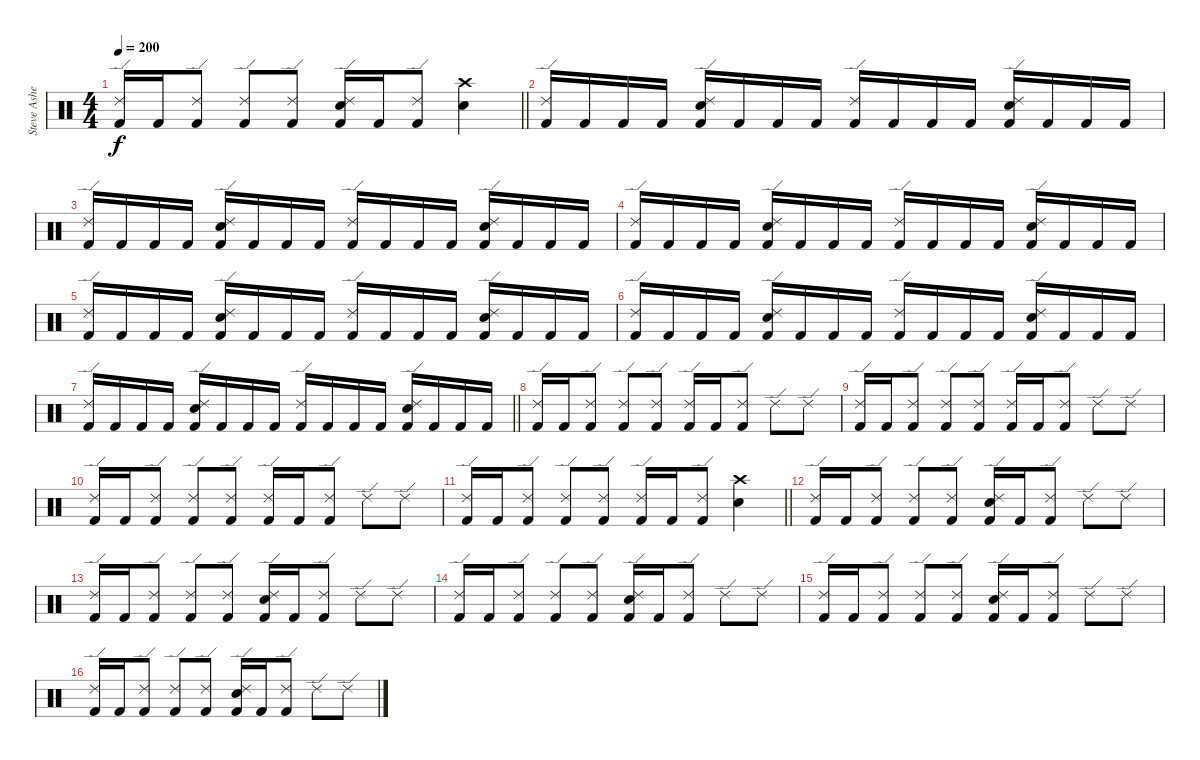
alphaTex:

\track ("Steve Asheim" "Steve Ashe") {instrument percussion}
\staff {score}
\articulation defaults
\ts (4 4)
\tempo 200
\clef neutral
\barLineRight lightlight
\ks c
("Ride (edge) 2" "Kick (hit) 2").16{dy f} "Kick (hit) 2".16 ("Ride (edge) 2" "Kick (hit) 2").8 ("Ride (edge) 2" "Kick (hit) 2").8 ("Ride (edge) 2" "Kick (hit) 2").8 ("Ride (edge) 2" "Electric Snare (hit)" "Kick (hit) 2").16 "Kick (hit) 2".16 ("Ride (edge) 2" "Kick (hit) 2").8 ("Crash high (hit)" "Electric Snare (hit)").4 |
("Ride (edge) 2" "Kick (hit) 2").16 "Kick (hit) 2".16 "Kick (hit) 2".16 "Kick (hit) 2".16 ("Ride (edge) 2" "Electric Snare (hit)" "Kick (hit) 2").16 "Kick (hit) 2".16 "Kick (hit) 2".16 "Kick (hit) 2".16 ("Ride (edge) 2" "Kick (hit) 2").16 "Kick (hit) 2".16 "Kick (hit) 2".16 "Kick (hit) 2".16 ("Ride (edge) 2" "Electric Snare (hit)" "Kick (hit) 2").16 "Kick (hit) 2".16 "Kick (hit) 2".16 "Kick (hit) 2".16 |
("Ride (edge) 2" "Kick (hit) 2").16 "Kick (hit) 2".16 "Kick (hit) 2".16 "Kick (hit) 2".16 ("Ride (edge) 2" "Electric Snare (hit)" "Kick (hit) 2").16 "Kick (hit) 2".16 "Kick (hit) 2".16 "Kick (hit) 2".16 ("Ride (edge) 2" "Kick (hit) 2").16 "Kick (hit) 2".16 "Kick (hit) 2".16 "Kick (hit) 2".16 ("Ride (edge) 2" "Electric Snare (hit)" "Kick (hit) 2").16 "Kick (hit) 2".16 "Kick (hit) 2".16 "Kick (hit) 2".16 |
("Ride (edge) 2" "Kick (hit) 2").16 "Kick (hit) 2".16 "Kick (hit) 2".16 "Kick (hit) 2".16 ("Ride (edge) 2" "Electric Snare (hit)" "Kick (hit) 2").16 "Kick (hit) 2".16 "Kick (hit) 2".16 "Kick (hit) 2".16 ("Ride (edge) 2" "Kick (hit) 2").16 "Kick (hit) 2".16 "Kick (hit) 2".16 "Kick (hit) 2".16 ("Ride (edge) 2" "Electric Snare (hit)" "Kick (hit) 2").16 "Kick (hit) 2".16 "Kick (hit) 2".16 "Kick (hit) 2".16 |
("Ride (edge) 2" "Kick (hit) 2").16 "Kick (hit) 2".16 "Kick (hit) 2".16 "Kick (hit) 2".16 ("Ride (edge) 2" "Electric Snare (hit)" "Kick (hit) 2").16 "Kick (hit) 2".16 "Kick (hit) 2".16 "Kick (hit) 2".16 ("Ride (edge) 2" "Kick (hit) 2").16 "Kick (hit) 2".16 "Kick (hit) 2".16 "Kick (hit) 2".16 ("Ride (edge) 2" "Electric Snare (hit)" "Kick (hit) 2").16 "Kick (hit) 2".16 "Kick (hit) 2".16 "Kick (hit) 2".16 |
("Ride (edge) 2" "Kick (hit) 2").16 "Kick (hit) 2".16 "Kick (hit) 2".16 "Kick (hit) 2".16 ("Ride (edge) 2" "Electric Snare (hit)" "Kick (hit) 2").16 "Kick (hit) 2".16 "Kick (hit) 2".16 "Kick (hit) 2".16 ("Ride (edge) 2" "Kick (hit) 2").16 "Kick (hit) 2".16 "Kick (hit) 2".16 "Kick (hit) 2".16 ("Ride (edge) 2" "Electric Snare (hit)" "Kick (hit) 2").16 "Kick (hit) 2".16 "Kick (hit) 2".16 "Kick (hit) 2".16 |
\barLineRight lightlight
("Ride (edge) 2" "Kick (hit) 2").16 "Kick (hit) 2".16 "Kick (hit) 2".16 "Kick (hit) 2".16 ("Ride (edge) 2" "Electric Snare (hit)" "Kick (hit) 2").16 "Kick (hit) 2".16 "Kick (hit) 2".16 "Kick (hit) 2".16 ("Ride (edge) 2" "Kick (hit) 2").16 "Kick (hit) 2".16 "Kick (hit) 2".16 "Kick (hit) 2".16 ("Ride (edge) 2" "Electric Snare (hit)" "Kick (hit) 2").16 "Kick (hit) 2".16 "Kick (hit) 2".16 "Kick (hit) 2".16 |
("Ride (edge) 2" "Kick (hit) 2").16 "Kick (hit) 2".16 ("Ride (edge) 2" "Kick (hit) 2").8 ("Ride (edge) 2" "Kick (hit) 2").8 ("Ride (edge) 2" "Kick (hit) 2").8 ("Ride (edge) 2" "Kick (hit) 2").16 "Kick (hit) 2".16 ("Ride (edge) 2" "Kick (hit) 2").8 "Ride (edge) 2".8 "Ride (edge) 2".8 |
("Ride (edge) 2" "Kick (hit) 2").16 "Kick (hit) 2".16 ("Ride (edge) 2" "Kick (hit) 2").8 ("Ride (edge) 2" "Kick (hit) 2").8 ("Ride (edge) 2" "Kick (hit) 2").8 ("Ride (edge) 2" "Kick (hit) 2").16 "Kick (hit) 2".16 ("Ride (edge) 2" "Kick (hit) 2").8 "Ride (edge) 2".8 "Ride (edge) 2".8 |
("Ride (edge) 2" "Kick (hit) 2").16 "Kick (hit) 2".16 ("Ride (edge) 2" "Kick (hit) 2").8 ("Ride (edge) 2" "Kick (hit) 2").8 ("Ride (edge) 2" "Kick (hit) 2").8 ("Ride (edge) 2" "Kick (hit) 2").16 "Kick (hit) 2".16 ("Ride (edge) 2" "Kick (hit) 2").8 "Ride (edge) 2".8 "Ride (edge) 2".8 |
\barLineRight lightlight
("Ride (edge) 2" "Kick (hit) 2").16 "Kick (hit) 2".16 ("Ride (edge) 2" "Kick (hit) 2").8 ("Ride (edge) 2" "Kick (hit) 2").8 ("Ride (edge) 2" "Kick (hit) 2").8 ("Ride (edge) 2" "Kick (hit) 2").16 "Kick (hit) 2".16 ("Ride (edge) 2" "Kick (hit) 2").8 ("Crash high (hit)" "Electric Snare (hit)").4 |
("Ride (edge) 2" "Kick (hit) 2").16 "Kick (hit) 2".16 ("Ride (edge) 2" "Kick (hit) 2").8 ("Ride (edge) 2" "Kick (hit) 2").8 ("Ride (edge) 2" "Kick (hit) 2").8 ("Ride (edge) 2" "Electric Snare (hit)" "Kick (hit) 2").16 "Kick (hit) 2".16 ("Ride (edge) 2" "Kick (hit) 2").8 "Ride (edge) 2".8 "Ride (edge) 2".8 |
("Ride (edge) 2" "Kick (hit) 2").16 "Kick (hit) 2".16 ("Ride (edge) 2" "Kick (hit) 2").8 ("Ride (edge) 2" "Kick (hit) 2").8 ("Ride (edge) 2" "Kick (hit) 2").8 ("Ride (edge) 2" "Electric Snare (hit)" "Kick (hit) 2").16 "Kick (hit) 2".16 ("Ride (edge) 2" "Kick (hit) 2").8 "Ride (edge) 2".8 "Ride (edge) 2".8 |
("Ride (edge) 2" "Kick (hit) 2").16 "Kick (hit) 2".16 ("Ride (edge) 2" "Kick (hit) 2").8 ("Ride (edge) 2" "Kick (hit) 2").8 ("Ride (edge) 2" "Kick (hit) 2").8 ("Ride (edge) 2" "Electric Snare (hit)" "Kick (hit) 2").16 "Kick (hit) 2".16 ("Ride (edge) 2" "Kick (hit) 2").8 "Ride (edge) 2".8 "Ride (edge) 2".8 |
("Ride (edge) 2" "Kick (hit) 2").16 "Kick (hit) 2".16 ("Ride (edge) 2" "Kick (hit) 2").8 ("Ride (edge) 2" "Kick (hit) 2").8 ("Ride (edge) 2" "Kick (hit) 2").8 ("Ride (edge) 2" "Electric Snare (hit)" "Kick (hit) 2").16 "Kick (hit) 2".16 ("Ride (edge) 2" "Kick (hit) 2").8 "Ride (edge) 2".8 "Ride (edge) 2".8 |
("Ride (edge) 2" "Kick (hit) 2").16 "Kick (hit) 2".16 ("Ride (edge) 2" "Kick (hit) 2").8 ("Ride (edge) 2" "Kick (hit) 2").8 ("Ride (edge) 2" "Kick (hit) 2").8 ("Ride (edge) 2" "Electric Snare (hit)" "Kick (hit) 2").16 "Kick (hit) 2".16 ("Ride (edge) 2" "Kick (hit) 2").8 "Ride (edge) 2".8 "Ride (edge) 2".8
